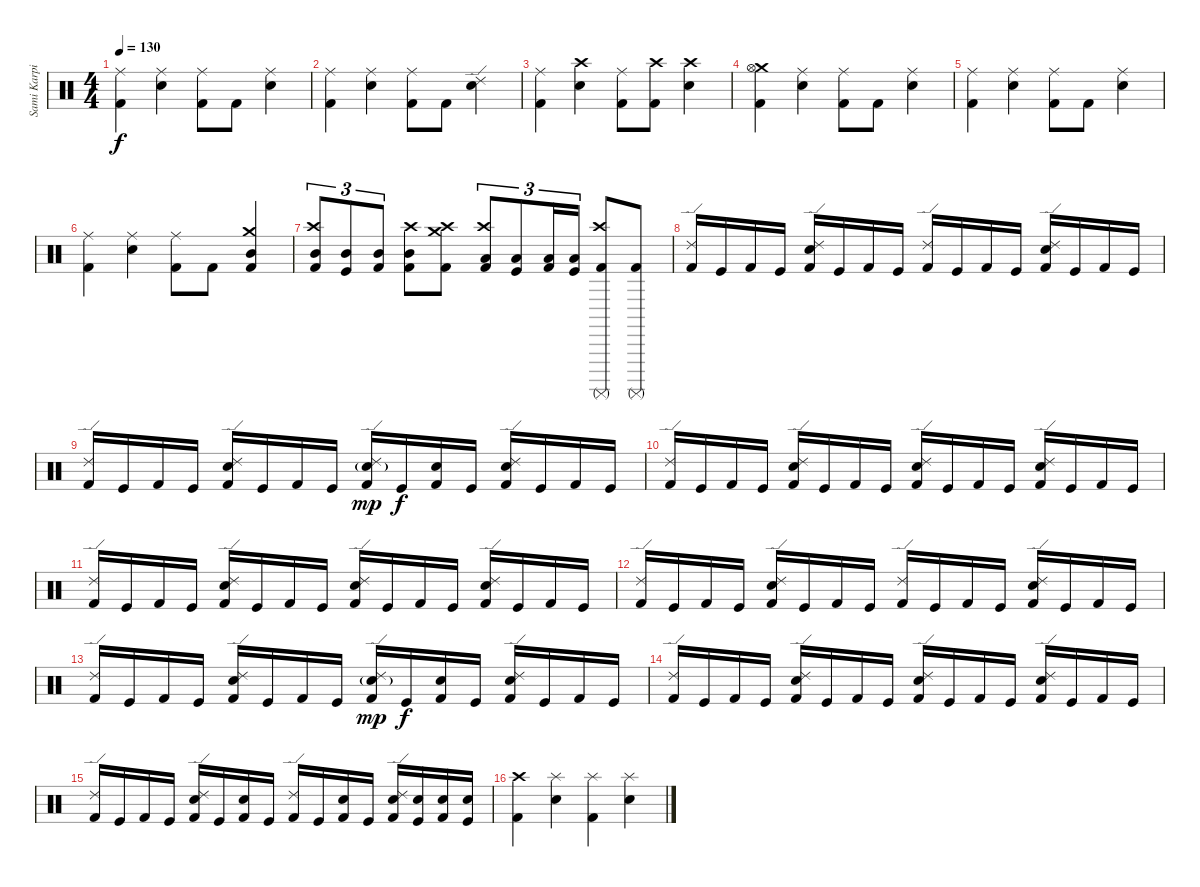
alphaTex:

\track ("Sami Karpinnen" "Sami Karpi") {instrument percussion}
\staff {score}
\articulation defaults
\ts (4 4)
\tempo 130
\clef neutral
\ks c
("Ride (middle)" "Kick (hit) 2").4{dy f} ("Ride (middle)" "Electric Snare (hit)").4 ("Ride (middle)" "Kick (hit) 2").8 "Kick (hit) 2".8 ("Ride (middle)" "Electric Snare (hit)").4 |
("Ride (middle)" "Kick (hit) 2").4 ("Ride (middle)" "Electric Snare (hit)").4 ("Ride (middle)" "Kick (hit) 2").8 "Kick (hit) 2".8 ("Ride (edge) 2" "Electric Snare (hit)").4 |
("Ride (middle)" "Kick (hit) 2").4 ("Crash high (hit)" "Electric Snare (hit)").4 ("Ride (middle)" "Kick (hit) 2").8 ("Crash high (hit)" "Kick (hit) 2").8 ("Crash high (hit)" "Electric Snare (hit)").4 |
("Crash medium (hit)" "Hi-Hat (open)" "Kick (hit) 2").4 ("Ride (middle)" "Electric Snare (hit)").4 ("Ride (middle)" "Kick (hit) 2").8 "Kick (hit) 2".8 ("Ride (middle)" "Electric Snare (hit)").4 |
("Ride (middle)" "Kick (hit) 2").4 ("Ride (middle)" "Electric Snare (hit)").4 ("Ride (middle)" "Kick (hit) 2").8 "Kick (hit) 2".8 ("Ride (middle)" "Electric Snare (hit)").4 |
("Ride (middle)" "Kick (hit) 2").4 ("Ride (middle)" "Electric Snare (hit)").4 ("Ride (middle)" "Kick (hit) 2").8 "Kick (hit) 2".8 ("Mid Tom (hit)" "Crash medium (hit)" "Kick (hit) 2").4 |
("Crash high (hit)" "Mid Tom (hit)" "Kick (hit) 2").8{tu (3 2)} ("Mid Tom (hit)" "Kick (hit)").8{tu (3 2)} ("Mid Tom (hit)" "Kick (hit) 2").8{tu (3 2)} ("Crash high (hit)" "Mid Tom (hit)" "Kick (hit) 2").8 ("Crash high (hit)" "Crash medium (hit)" "Kick (hit) 2").8 ("Crash high (hit)" "Low Tom (hit)" "Kick (hit) 2").8{tu (3 2)} ("Low Tom (hit)" "Kick (hit)").8{tu (3 2)} ("Low Tom (hit)" "Kick (hit) 2").16{tu (3 2)} ("Low Tom (hit)" "Kick (hit)").16{tu (3 2)} ("Crash high (hit)" "Surdo (mute)" "Kick (hit) 2").8 ("Surdo (mute)" "Kick (hit) 2").8 |
("Ride (edge) 2" "Kick (hit) 2").16 "Kick (hit)".16 "Kick (hit) 2".16 "Kick (hit)".16 ("Ride (edge) 2" "Electric Snare (hit)" "Kick (hit) 2").16 "Kick (hit)".16 "Kick (hit) 2".16 "Kick (hit)".16 ("Ride (edge) 2" "Kick (hit) 2").16 "Kick (hit)".16 "Kick (hit) 2".16 "Kick (hit)".16 ("Ride (edge) 2" "Electric Snare (hit)" "Kick (hit) 2").16 "Kick (hit)".16 "Kick (hit) 2".16 "Kick (hit)".16 |
("Ride (edge) 2" "Kick (hit) 2").16 "Kick (hit)".16 "Kick (hit) 2".16 "Kick (hit)".16 ("Ride (edge) 2" "Electric Snare (hit)" "Kick (hit) 2").16 "Kick (hit)".16 "Kick (hit) 2".16 "Kick (hit)".16 ("Ride (edge) 2" "Electric Snare (hit)"{g} "Kick (hit) 2").16{dy mp} "Kick (hit)".16{dy f} ("Electric Snare (hit)" "Kick (hit) 2").16 "Kick (hit)".16 ("Ride (edge) 2" "Electric Snare (hit)" "Kick (hit) 2").16 "Kick (hit)".16 "Kick (hit) 2".16 "Kick (hit)".16 |
("Ride (edge) 2" "Kick (hit) 2").16 "Kick (hit)".16 "Kick (hit) 2".16 "Kick (hit)".16 ("Ride (edge) 2" "Electric Snare (hit)" "Kick (hit) 2").16 "Kick (hit)".16 "Kick (hit) 2".16 "Kick (hit)".16 ("Ride (edge) 2" "Electric Snare (hit)" "Kick (hit) 2").16 "Kick (hit)".16 "Kick (hit) 2".16 "Kick (hit)".16 ("Ride (edge) 2" "Electric Snare (hit)" "Kick (hit) 2").16 "Kick (hit)".16 "Kick (hit) 2".16 "Kick (hit)".16 |
("Ride (edge) 2" "Kick (hit) 2").16 "Kick (hit)".16 "Kick (hit) 2".16 "Kick (hit)".16 ("Ride (edge) 2" "Electric Snare (hit)" "Kick (hit) 2").16 "Kick (hit)".16 "Kick (hit) 2".16 "Kick (hit)".16 ("Ride (edge) 2" "Electric Snare (hit)" "Kick (hit) 2").16 "Kick (hit)".16 "Kick (hit) 2".16 "Kick (hit)".16 ("Ride (edge) 2" "Electric Snare (hit)" "Kick (hit) 2").16 "Kick (hit)".16 "Kick (hit) 2".16 "Kick (hit)".16 |
("Ride (edge) 2" "Kick (hit) 2").16 "Kick (hit)".16 "Kick (hit) 2".16 "Kick (hit)".16 ("Ride (edge) 2" "Electric Snare (hit)" "Kick (hit) 2").16 "Kick (hit)".16 "Kick (hit) 2".16 "Kick (hit)".16 ("Ride (edge) 2" "Kick (hit) 2").16 "Kick (hit)".16 "Kick (hit) 2".16 "Kick (hit)".16 ("Ride (edge) 2" "Electric Snare (hit)" "Kick (hit) 2").16 "Kick (hit)".16 "Kick (hit) 2".16 "Kick (hit)".16 |
("Ride (edge) 2" "Kick (hit) 2").16 "Kick (hit)".16 "Kick (hit) 2".16 "Kick (hit)".16 ("Ride (edge) 2" "Electric Snare (hit)" "Kick (hit) 2").16 "Kick (hit)".16 "Kick (hit) 2".16 "Kick (hit)".16 ("Ride (edge) 2" "Electric Snare (hit)"{g} "Kick (hit) 2").16{dy mp} "Kick (hit)".16{dy f} ("Electric Snare (hit)" "Kick (hit) 2").16 "Kick (hit)".16 ("Ride (edge) 2" "Electric Snare (hit)" "Kick (hit) 2").16 "Kick (hit)".16 "Kick (hit) 2".16 "Kick (hit)".16 |
("Ride (edge) 2" "Kick (hit) 2").16 "Kick (hit)".16 "Kick (hit) 2".16 "Kick (hit)".16 ("Ride (edge) 2" "Electric Snare (hit)" "Kick (hit) 2").16 "Kick (hit)".16 "Kick (hit) 2".16 "Kick (hit)".16 ("Ride (edge) 2" "Electric Snare (hit)" "Kick (hit) 2").16 "Kick (hit)".16 "Kick (hit) 2".16 "Kick (hit)".16 ("Ride (edge) 2" "Electric Snare (hit)" "Kick (hit) 2").16 "Kick (hit)".16 "Kick (hit) 2".16 "Kick (hit)".16 |
("Ride (edge) 2" "Kick (hit) 2").16 "Kick (hit)".16 "Kick (hit) 2".16 "Kick (hit)".16 ("Ride (edge) 2" "Electric Snare (hit)" "Kick (hit) 2").16 "Kick (hit)".16 ("Electric Snare (hit)" "Kick (hit) 2").16 "Kick (hit)".16 ("Ride (edge) 2" "Kick (hit) 2").16 "Kick (hit)".16 ("Electric Snare (hit)" "Kick (hit) 2").16 "Kick (hit)".16 ("Ride (edge) 2" "Electric Snare (hit)" "Kick (hit) 2").16 ("Electric Snare (hit)" "Kick (hit)").16 ("Electric Snare (hit)" "Kick (hit) 2").16 ("Electric Snare (hit)" "Kick (hit)").16 |
("Crash high (hit)" "Kick (hit) 2").4 ("Splash (hit)" "Electric Snare (hit)").4 ("Splash (hit)" "Kick (hit) 2").4 ("Splash (hit)" "Electric Snare (hit)").4
